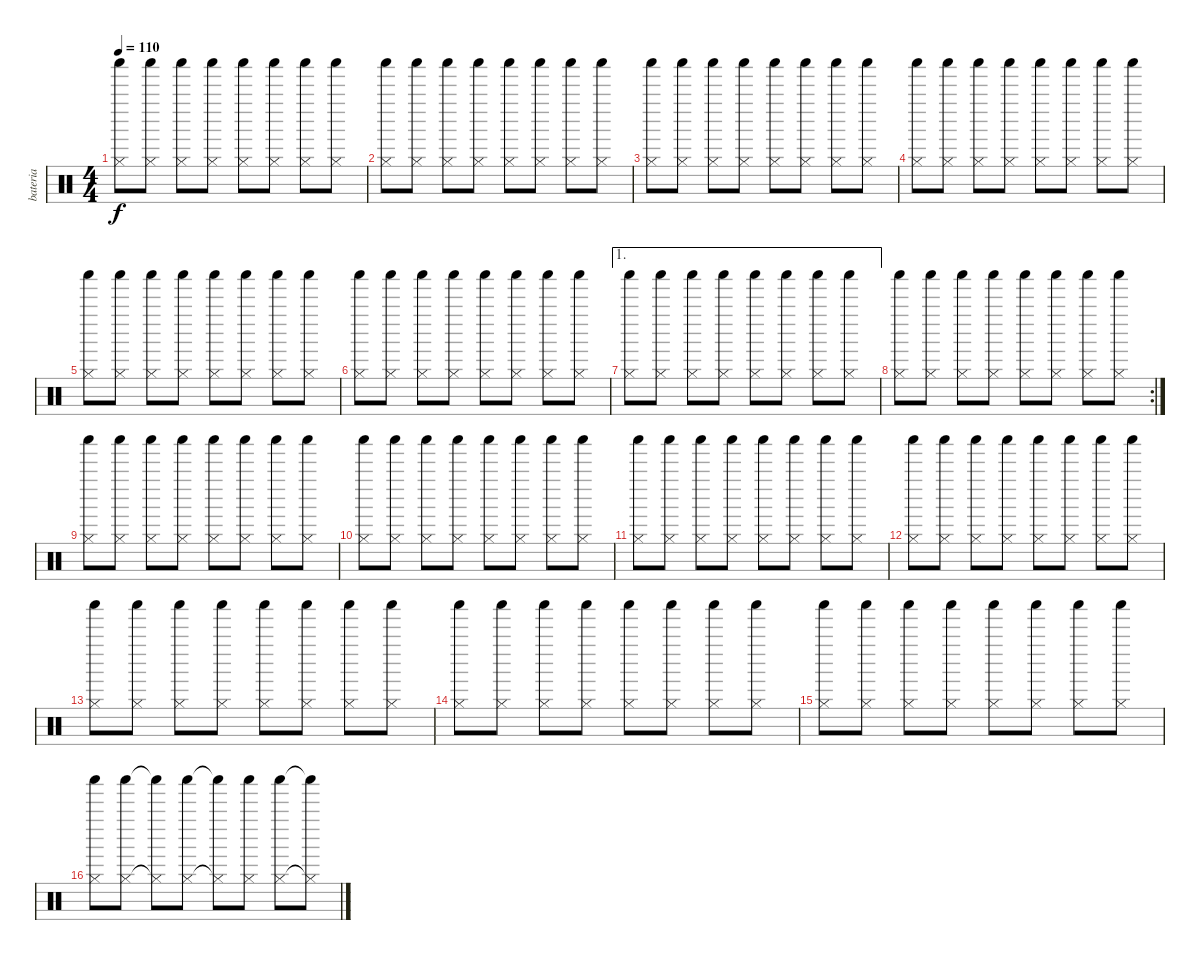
\track ("bateria" "bateria") {instrument percussion}
\staff {score}
\articulation defaults
\ts (4 4)
\tempo 110
\clef neutral
\ks c
("Shaker (hit)" "Hi-Hat (closed)").8{dy f} ("Shaker (hit)" "Hi-Hat (closed)").8 ("Shaker (hit)" "Hi-Hat (closed)").8 ("Shaker (hit)" "Hi-Hat (closed)").8 ("Shaker (hit)" "Hi-Hat (closed)").8 ("Shaker (hit)" "Hi-Hat (closed)").8 ("Shaker (hit)" "Hi-Hat (closed)").8 ("Shaker (hit)" "Hi-Hat (closed)").8 |
("Shaker (hit)" "Hi-Hat (closed)").8 ("Shaker (hit)" "Hi-Hat (closed)").8 ("Shaker (hit)" "Hi-Hat (closed)").8 ("Shaker (hit)" "Hi-Hat (closed)").8 ("Shaker (hit)" "Hi-Hat (closed)").8 ("Shaker (hit)" "Hi-Hat (closed)").8 ("Shaker (hit)" "Hi-Hat (closed)").8 ("Shaker (hit)" "Hi-Hat (closed)").8 |
("Shaker (hit)" "Hi-Hat (closed)").8 ("Shaker (hit)" "Hi-Hat (closed)").8 ("Shaker (hit)" "Hi-Hat (closed)").8 ("Shaker (hit)" "Hi-Hat (closed)").8 ("Shaker (hit)" "Hi-Hat (closed)").8 ("Shaker (hit)" "Hi-Hat (closed)").8 ("Shaker (hit)" "Hi-Hat (closed)").8 ("Shaker (hit)" "Hi-Hat (closed)").8 |
("Shaker (hit)" "Hi-Hat (closed)").8 ("Shaker (hit)" "Hi-Hat (closed)").8 ("Shaker (hit)" "Hi-Hat (closed)").8 ("Shaker (hit)" "Hi-Hat (closed)").8 ("Shaker (hit)" "Hi-Hat (closed)").8 ("Shaker (hit)" "Hi-Hat (closed)").8 ("Shaker (hit)" "Hi-Hat (closed)").8 ("Shaker (hit)" "Hi-Hat (closed)").8 |
("Shaker (hit)" "Hi-Hat (closed)").8 ("Shaker (hit)" "Hi-Hat (closed)").8 ("Shaker (hit)" "Hi-Hat (closed)").8 ("Shaker (hit)" "Hi-Hat (closed)").8 ("Shaker (hit)" "Hi-Hat (closed)").8 ("Shaker (hit)" "Hi-Hat (closed)").8 ("Shaker (hit)" "Hi-Hat (closed)").8 ("Shaker (hit)" "Hi-Hat (closed)").8 |
("Shaker (hit)" "Hi-Hat (closed)").8 ("Shaker (hit)" "Hi-Hat (closed)").8 ("Shaker (hit)" "Hi-Hat (closed)").8 ("Shaker (hit)" "Hi-Hat (closed)").8 ("Shaker (hit)" "Hi-Hat (closed)").8 ("Shaker (hit)" "Hi-Hat (closed)").8 ("Shaker (hit)" "Hi-Hat (closed)").8 ("Shaker (hit)" "Hi-Hat (closed)").8 |
\ae 1
("Shaker (hit)" "Hi-Hat (closed)").8 ("Shaker (hit)" "Hi-Hat (closed)").8 ("Shaker (hit)" "Hi-Hat (closed)").8 ("Shaker (hit)" "Hi-Hat (closed)").8 ("Shaker (hit)" "Hi-Hat (closed)").8 ("Shaker (hit)" "Hi-Hat (closed)").8 ("Shaker (hit)" "Hi-Hat (closed)").8 ("Shaker (hit)" "Hi-Hat (closed)").8 |
\rc 2
("Shaker (hit)" "Hi-Hat (closed)").8 ("Shaker (hit)" "Hi-Hat (closed)").8 ("Shaker (hit)" "Hi-Hat (closed)").8 ("Shaker (hit)" "Hi-Hat (closed)").8 ("Shaker (hit)" "Hi-Hat (closed)").8 ("Shaker (hit)" "Hi-Hat (closed)").8 ("Shaker (hit)" "Hi-Hat (closed)").8 ("Shaker (hit)" "Hi-Hat (closed)").8 |
("Shaker (hit)" "Hi-Hat (closed)").8 ("Shaker (hit)" "Hi-Hat (closed)").8 ("Shaker (hit)" "Hi-Hat (closed)").8 ("Shaker (hit)" "Hi-Hat (closed)").8 ("Shaker (hit)" "Hi-Hat (closed)").8 ("Shaker (hit)" "Hi-Hat (closed)").8 ("Shaker (hit)" "Hi-Hat (closed)").8 ("Shaker (hit)" "Hi-Hat (closed)").8 |
("Shaker (hit)" "Hi-Hat (closed)").8 ("Shaker (hit)" "Hi-Hat (closed)").8 ("Shaker (hit)" "Hi-Hat (closed)").8 ("Shaker (hit)" "Hi-Hat (closed)").8 ("Shaker (hit)" "Hi-Hat (closed)").8 ("Shaker (hit)" "Hi-Hat (closed)").8 ("Shaker (hit)" "Hi-Hat (closed)").8 ("Shaker (hit)" "Hi-Hat (closed)").8 |
("Shaker (hit)" "Hi-Hat (closed)").8 ("Shaker (hit)" "Hi-Hat (closed)").8 ("Shaker (hit)" "Hi-Hat (closed)").8 ("Shaker (hit)" "Hi-Hat (closed)").8 ("Shaker (hit)" "Hi-Hat (closed)").8 ("Shaker (hit)" "Hi-Hat (closed)").8 ("Shaker (hit)" "Hi-Hat (closed)").8 ("Shaker (hit)" "Hi-Hat (closed)").8 |
("Shaker (hit)" "Hi-Hat (closed)").8 ("Shaker (hit)" "Hi-Hat (closed)").8 ("Shaker (hit)" "Hi-Hat (closed)").8 ("Shaker (hit)" "Hi-Hat (closed)").8 ("Shaker (hit)" "Hi-Hat (closed)").8 ("Shaker (hit)" "Hi-Hat (closed)").8 ("Shaker (hit)" "Hi-Hat (closed)").8 ("Shaker (hit)" "Hi-Hat (closed)").8 |
("Shaker (hit)" "Hi-Hat (closed)").8 ("Shaker (hit)" "Hi-Hat (closed)").8 ("Shaker (hit)" "Hi-Hat (closed)").8 ("Shaker (hit)" "Hi-Hat (closed)").8 ("Shaker (hit)" "Hi-Hat (closed)").8 ("Shaker (hit)" "Hi-Hat (closed)").8 ("Shaker (hit)" "Hi-Hat (closed)").8 ("Shaker (hit)" "Hi-Hat (closed)").8 |
("Shaker (hit)" "Hi-Hat (closed)").8 ("Shaker (hit)" "Hi-Hat (closed)").8 ("Shaker (hit)" "Hi-Hat (closed)").8 ("Shaker (hit)" "Hi-Hat (closed)").8 ("Shaker (hit)" "Hi-Hat (closed)").8 ("Shaker (hit)" "Hi-Hat (closed)").8 ("Shaker (hit)" "Hi-Hat (closed)").8 ("Shaker (hit)" "Hi-Hat (closed)").8 |
("Shaker (hit)" "Hi-Hat (closed)").8 ("Shaker (hit)" "Hi-Hat (closed)").8 ("Shaker (hit)" "Hi-Hat (closed)").8 ("Shaker (hit)" "Hi-Hat (closed)").8 ("Shaker (hit)" "Hi-Hat (closed)").8 ("Shaker (hit)" "Hi-Hat (closed)").8 ("Shaker (hit)" "Hi-Hat (closed)").8 ("Shaker (hit)" "Hi-Hat (closed)").8 |
("Shaker (hit)" "Hi-Hat (closed)").8 ("Shaker (hit)" "Hi-Hat (closed)").8 ("Shaker (hit)"{t} "Hi-Hat (closed)"{t}).8 ("Shaker (hit)" "Hi-Hat (closed)").8 ("Shaker (hit)"{t} "Hi-Hat (closed)"{t}).8 ("Shaker (hit)" "Hi-Hat (closed)").8 ("Shaker (hit)" "Hi-Hat (closed)").8 ("Shaker (hit)"{t} "Hi-Hat (closed)"{t}).8
